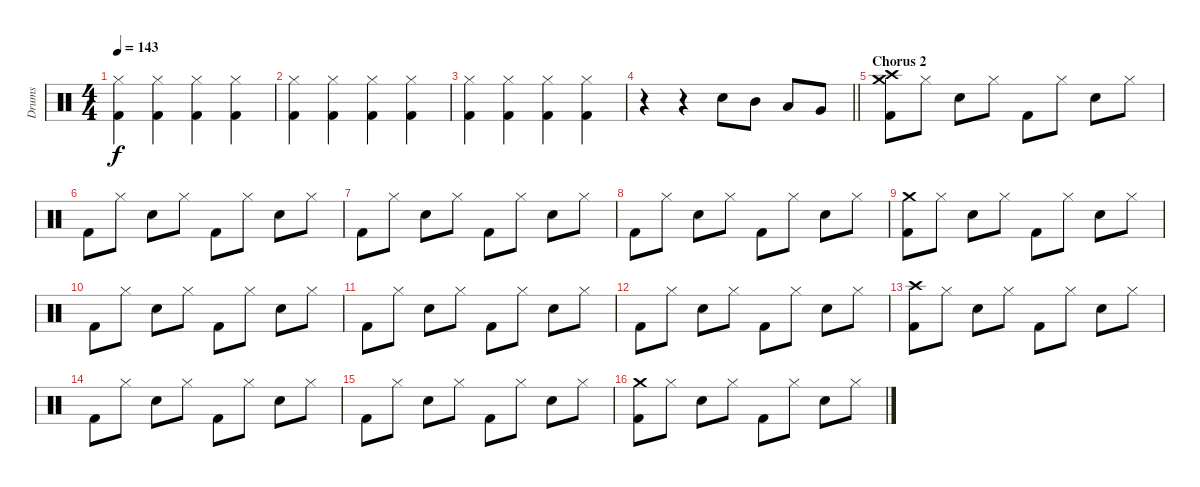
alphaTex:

\track ("Drums" "Drums") {instrument percussion}
\staff {score}
\articulation defaults
\ts (4 4)
\tempo 143
\clef neutral
\ks c
("Hi-Hat (closed)" "Kick (hit) 2").4{dy f} ("Hi-Hat (closed)" "Kick (hit) 2").4 ("Hi-Hat (closed)" "Kick (hit) 2").4 ("Hi-Hat (closed)" "Kick (hit) 2").4 |
("Hi-Hat (closed)" "Kick (hit) 2").4 ("Hi-Hat (closed)" "Kick (hit) 2").4 ("Hi-Hat (closed)" "Kick (hit) 2").4 ("Hi-Hat (closed)" "Kick (hit) 2").4 |
("Hi-Hat (closed)" "Kick (hit) 2").4 ("Hi-Hat (closed)" "Kick (hit) 2").4 ("Hi-Hat (closed)" "Kick (hit) 2").4 ("Hi-Hat (closed)" "Kick (hit) 2").4 |
\barLineRight lightlight
r.4 r.4 "Snare (hit) 2".8 "Mid Tom (hit)".8 "Low Tom (hit)".8 "Very Low Tom (hit)".8 |
\section ("" "Chorus 2")
("Crash medium (hit)" "Crash high (hit)" "Kick (hit) 2").8 "Hi-Hat (closed)".8 "Snare (hit) 2".8 "Hi-Hat (closed)".8 "Kick (hit) 2".8 "Hi-Hat (closed)".8 "Snare (hit) 2".8 "Hi-Hat (closed)".8 |
"Kick (hit) 2".8 "Hi-Hat (closed)".8 "Snare (hit) 2".8 "Hi-Hat (closed)".8 "Kick (hit) 2".8 "Hi-Hat (closed)".8 "Snare (hit) 2".8 "Hi-Hat (closed)".8 |
"Kick (hit) 2".8 "Hi-Hat (closed)".8 "Snare (hit) 2".8 "Hi-Hat (closed)".8 "Kick (hit) 2".8 "Hi-Hat (closed)".8 "Snare (hit) 2".8 "Hi-Hat (closed)".8 |
"Kick (hit) 2".8 "Hi-Hat (closed)".8 "Snare (hit) 2".8 "Hi-Hat (closed)".8 "Kick (hit) 2".8 "Hi-Hat (closed)".8 "Snare (hit) 2".8 "Hi-Hat (closed)".8 |
("Crash medium (hit)" "Kick (hit) 2").8 "Hi-Hat (closed)".8 "Snare (hit) 2".8 "Hi-Hat (closed)".8 "Kick (hit) 2".8 "Hi-Hat (closed)".8 "Snare (hit) 2".8 "Hi-Hat (closed)".8 |
"Kick (hit) 2".8 "Hi-Hat (closed)".8 "Snare (hit) 2".8 "Hi-Hat (closed)".8 "Kick (hit) 2".8 "Hi-Hat (closed)".8 "Snare (hit) 2".8 "Hi-Hat (closed)".8 |
"Kick (hit) 2".8 "Hi-Hat (closed)".8 "Snare (hit) 2".8 "Hi-Hat (closed)".8 "Kick (hit) 2".8 "Hi-Hat (closed)".8 "Snare (hit) 2".8 "Hi-Hat (closed)".8 |
"Kick (hit) 2".8 "Hi-Hat (closed)".8 "Snare (hit) 2".8 "Hi-Hat (closed)".8 "Kick (hit) 2".8 "Hi-Hat (closed)".8 "Snare (hit) 2".8 "Hi-Hat (closed)".8 |
("Crash high (hit)" "Kick (hit) 2").8 "Hi-Hat (closed)".8 "Snare (hit) 2".8 "Hi-Hat (closed)".8 "Kick (hit) 2".8 "Hi-Hat (closed)".8 "Snare (hit) 2".8 "Hi-Hat (closed)".8 |
"Kick (hit) 2".8 "Hi-Hat (closed)".8 "Snare (hit) 2".8 "Hi-Hat (closed)".8 "Kick (hit) 2".8 "Hi-Hat (closed)".8 "Snare (hit) 2".8 "Hi-Hat (closed)".8 |
"Kick (hit) 2".8 "Hi-Hat (closed)".8 "Snare (hit) 2".8 "Hi-Hat (closed)".8 "Kick (hit) 2".8 "Hi-Hat (closed)".8 "Snare (hit) 2".8 "Hi-Hat (closed)".8 |
("Crash medium (hit)" "Kick (hit) 2").8 "Hi-Hat (closed)".8 "Snare (hit) 2".8 "Hi-Hat (closed)".8 "Kick (hit) 2".8 "Hi-Hat (closed)".8 "Snare (hit) 2".8 "Hi-Hat (closed)".8
